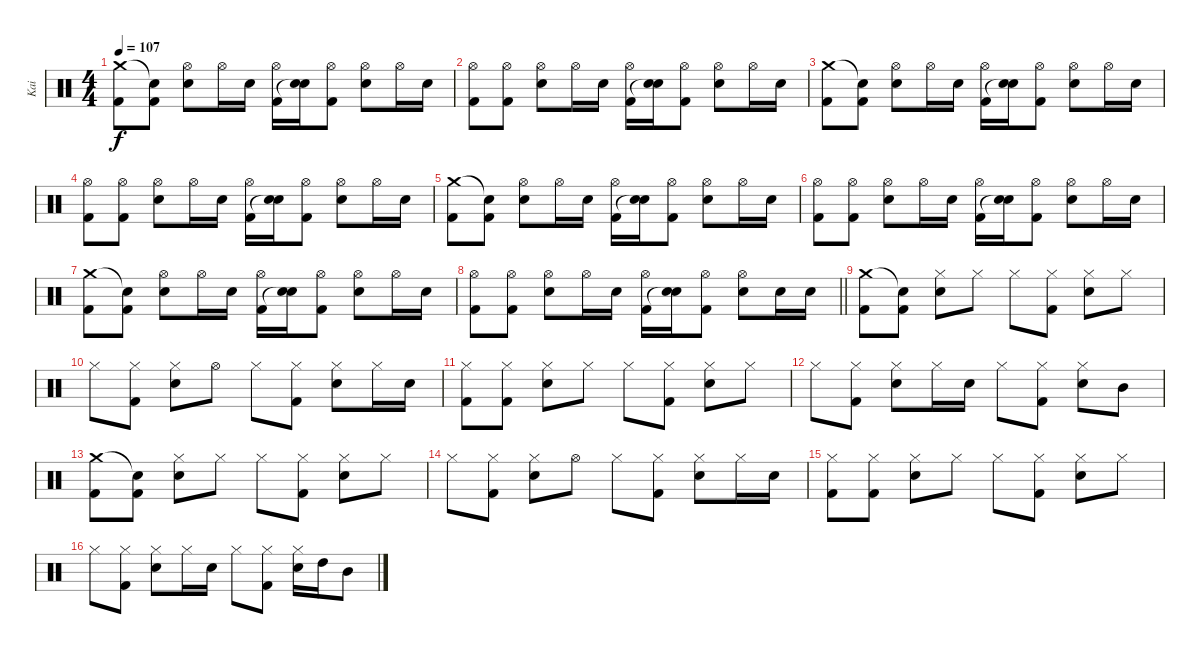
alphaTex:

\track ("Kai" "Kai") {instrument percussion}
\staff {score}
\articulation defaults
\ts (4 4)
\tempo 107
\clef neutral
\ks c
("Crash medium (hit)" "Kick (hit) 2").8{dy f} ("Snare (hit)"{t} "Kick (hit) 2").8 ("Hi-Hat (open)" "Snare (hit) 2").8 "Hi-Hat (open)".16 "Snare (hit) 2".16 ("Hi-Hat (open)" "Kick (hit) 2").16 ("Snare (hit) 2" "Snare (hit)"{t}).16 ("Hi-Hat (open)" "Kick (hit) 2").8 ("Hi-Hat (open)" "Snare (hit) 2").8 "Hi-Hat (open)".16 "Snare (hit) 2".16 |
("Hi-Hat (open)" "Kick (hit) 2").8 ("Hi-Hat (open)" "Kick (hit) 2").8 ("Hi-Hat (open)" "Snare (hit) 2").8 "Hi-Hat (open)".16 "Snare (hit) 2".16 ("Hi-Hat (open)" "Kick (hit) 2").16 ("Snare (hit) 2" "Snare (hit)"{t}).16 ("Hi-Hat (open)" "Kick (hit) 2").8 ("Hi-Hat (open)" "Snare (hit) 2").8 "Hi-Hat (open)".16 "Snare (hit) 2".16 |
("Crash medium (hit)" "Kick (hit) 2").8 ("Snare (hit)"{t} "Kick (hit) 2").8 ("Hi-Hat (open)" "Snare (hit) 2").8 "Hi-Hat (open)".16 "Snare (hit) 2".16 ("Hi-Hat (open)" "Kick (hit) 2").16 ("Snare (hit) 2" "Snare (hit)"{t}).16 ("Hi-Hat (open)" "Kick (hit) 2").8 ("Hi-Hat (open)" "Snare (hit) 2").8 "Hi-Hat (open)".16 "Snare (hit) 2".16 |
("Hi-Hat (open)" "Kick (hit) 2").8 ("Hi-Hat (open)" "Kick (hit) 2").8 ("Hi-Hat (open)" "Snare (hit) 2").8 "Hi-Hat (open)".16 "Snare (hit) 2".16 ("Hi-Hat (open)" "Kick (hit) 2").16 ("Snare (hit) 2" "Snare (hit)"{t}).16 ("Hi-Hat (open)" "Kick (hit) 2").8 ("Hi-Hat (open)" "Snare (hit) 2").8 "Hi-Hat (open)".16 "Snare (hit) 2".16 |
("Crash medium (hit)" "Kick (hit) 2").8 ("Snare (hit)"{t} "Kick (hit) 2").8 ("Hi-Hat (open)" "Snare (hit) 2").8 "Hi-Hat (open)".16 "Snare (hit) 2".16 ("Hi-Hat (open)" "Kick (hit) 2").16 ("Snare (hit) 2" "Snare (hit)"{t}).16 ("Hi-Hat (open)" "Kick (hit) 2").8 ("Hi-Hat (open)" "Snare (hit) 2").8 "Hi-Hat (open)".16 "Snare (hit) 2".16 |
("Hi-Hat (open)" "Kick (hit) 2").8 ("Hi-Hat (open)" "Kick (hit) 2").8 ("Hi-Hat (open)" "Snare (hit) 2").8 "Hi-Hat (open)".16 "Snare (hit) 2".16 ("Hi-Hat (open)" "Kick (hit) 2").16 ("Snare (hit) 2" "Snare (hit)"{t}).16 ("Hi-Hat (open)" "Kick (hit) 2").8 ("Hi-Hat (open)" "Snare (hit) 2").8 "Hi-Hat (open)".16 "Snare (hit) 2".16 |
("Crash medium (hit)" "Kick (hit) 2").8 ("Snare (hit)"{t} "Kick (hit) 2").8 ("Hi-Hat (open)" "Snare (hit) 2").8 "Hi-Hat (open)".16 "Snare (hit) 2".16 ("Hi-Hat (open)" "Kick (hit) 2").16 ("Snare (hit) 2" "Snare (hit)"{t}).16 ("Hi-Hat (open)" "Kick (hit) 2").8 ("Hi-Hat (open)" "Snare (hit) 2").8 "Hi-Hat (open)".16 "Snare (hit) 2".16 |
\barLineRight lightlight
("Hi-Hat (open)" "Kick (hit) 2").8 ("Hi-Hat (open)" "Kick (hit) 2").8 ("Hi-Hat (open)" "Snare (hit) 2").8 "Hi-Hat (open)".16 "Snare (hit) 2".16 ("Hi-Hat (open)" "Kick (hit) 2").16 ("Snare (hit) 2" "Snare (hit)"{t}).16 ("Hi-Hat (open)" "Kick (hit) 2").8 ("Hi-Hat (open)" "Snare (hit) 2").8 "Snare (hit) 2".16 "Snare (hit) 2".16 |
("Crash medium (hit)" "Kick (hit) 2").8 ("Snare (hit)"{t} "Kick (hit) 2").8 ("Hi-Hat (closed)" "Snare (hit) 2").8 "Hi-Hat (closed)".8 "Hi-Hat (closed)".8 ("Hi-Hat (closed)" "Kick (hit) 2").8 ("Hi-Hat (closed)" "Snare (hit) 2").8 "Hi-Hat (closed)".8 |
"Hi-Hat (closed)".8 ("Hi-Hat (closed)" "Kick (hit) 2").8 ("Hi-Hat (closed)" "Snare (hit) 2").8 "Hi-Hat (open)".8 "Hi-Hat (closed)".8 ("Hi-Hat (closed)" "Kick (hit) 2").8 ("Hi-Hat (closed)" "Snare (hit) 2").8 "Hi-Hat (closed)".16 "Snare (hit) 2".16 |
("Hi-Hat (closed)" "Kick (hit) 2").8 ("Hi-Hat (closed)" "Kick (hit) 2").8 ("Hi-Hat (closed)" "Snare (hit) 2").8 "Hi-Hat (closed)".8 "Hi-Hat (closed)".8 ("Hi-Hat (closed)" "Kick (hit) 2").8 ("Hi-Hat (closed)" "Snare (hit) 2").8 "Hi-Hat (closed)".8 |
"Hi-Hat (closed)".8 ("Hi-Hat (closed)" "Kick (hit) 2").8 ("Hi-Hat (closed)" "Snare (hit) 2").8 "Hi-Hat (closed)".16 "Snare (hit) 2".16 "Hi-Hat (closed)".8 ("Hi-Hat (closed)" "Kick (hit) 2").8 ("Hi-Hat (closed)" "Snare (hit) 2").8 "Mid Tom (hit)".8 |
("Crash medium (hit)" "Kick (hit) 2").8 ("Snare (hit)"{t} "Kick (hit) 2").8 ("Hi-Hat (closed)" "Snare (hit) 2").8 "Hi-Hat (closed)".8 "Hi-Hat (closed)".8 ("Hi-Hat (closed)" "Kick (hit) 2").8 ("Hi-Hat (closed)" "Snare (hit) 2").8 "Hi-Hat (closed)".8 |
"Hi-Hat (closed)".8 ("Hi-Hat (closed)" "Kick (hit) 2").8 ("Hi-Hat (closed)" "Snare (hit) 2").8 "Hi-Hat (open)".8 "Hi-Hat (closed)".8 ("Hi-Hat (closed)" "Kick (hit) 2").8 ("Hi-Hat (closed)" "Snare (hit) 2").8 "Hi-Hat (closed)".16 "Snare (hit) 2".16 |
("Hi-Hat (closed)" "Kick (hit) 2").8 ("Hi-Hat (closed)" "Kick (hit) 2").8 ("Hi-Hat (closed)" "Snare (hit) 2").8 "Hi-Hat (closed)".8 "Hi-Hat (closed)".8 ("Hi-Hat (closed)" "Kick (hit) 2").8 ("Hi-Hat (closed)" "Snare (hit) 2").8 "Hi-Hat (closed)".8 |
"Hi-Hat (closed)".8 ("Hi-Hat (closed)" "Kick (hit) 2").8 ("Hi-Hat (closed)" "Snare (hit) 2").8 "Hi-Hat (closed)".16 "Snare (hit) 2".16 "Hi-Hat (closed)".8 ("Hi-Hat (closed)" "Kick (hit) 2").8 ("Hi-Hat (closed)" "Snare (hit) 2").16 "High Tom (hit)".16 "Mid Tom (hit)".8
